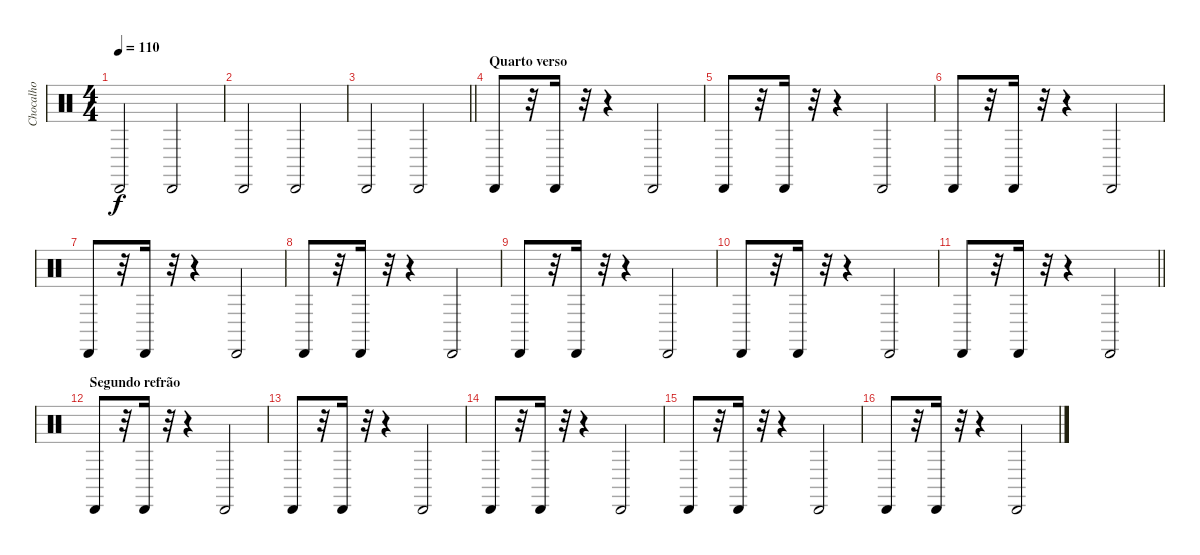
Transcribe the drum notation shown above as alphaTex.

\track ("Chocalho" "Chocalho") {instrument percussion}
\staff {score}
\articulation defaults
\ts (4 4)
\tempo 110
\clef neutral
\ks c "Cabasa (hit)".2{dy f} "Cabasa (hit)".2
|
"Cabasa (hit)".2 "Cabasa (hit)".2 |
\barLineRight lightlight "Cabasa (hit)".2 "Cabasa (hit)".2
|
\section ("" "Quarto verso")
"Cabasa (hit)".8 r.32 "Cabasa (hit)".16 r.32 r.4 "Cabasa (hit)".2 |
"Cabasa (hit)".8 r.32 "Cabasa (hit)".16 r.32 r.4 "Cabasa (hit)".2 |
"Cabasa (hit)".8 r.32 "Cabasa (hit)".16 r.32 r.4 "Cabasa (hit)".2 |
"Cabasa (hit)".8 r.32 "Cabasa (hit)".16 r.32 r.4 "Cabasa (hit)".2 |
"Cabasa (hit)".8 r.32 "Cabasa (hit)".16 r.32 r.4 "Cabasa (hit)".2 |
"Cabasa (hit)".8 r.32 "Cabasa (hit)".16 r.32 r.4 "Cabasa (hit)".2 |
"Cabasa (hit)".8 r.32 "Cabasa (hit)".16 r.32 r.4 "Cabasa (hit)".2 |
\barLineRight lightlight "Cabasa (hit)".8
r.32 "Cabasa (hit)".16 r.32 r.4 "Cabasa (hit)".2 |
\section ("" "Segundo refrão")
"Cabasa (hit)".8 r.32 "Cabasa (hit)".16 r.32 r.4 "Cabasa (hit)".2 |
"Cabasa (hit)".8 r.32 "Cabasa (hit)".16 r.32 r.4 "Cabasa (hit)".2 |
"Cabasa (hit)".8 r.32 "Cabasa (hit)".16 r.32 r.4 "Cabasa (hit)".2 |
"Cabasa (hit)".8 r.32 "Cabasa (hit)".16 r.32 r.4 "Cabasa (hit)".2 |
"Cabasa (hit)".8 r.32 "Cabasa (hit)".16 r.32 r.4 "Cabasa (hit)".2
